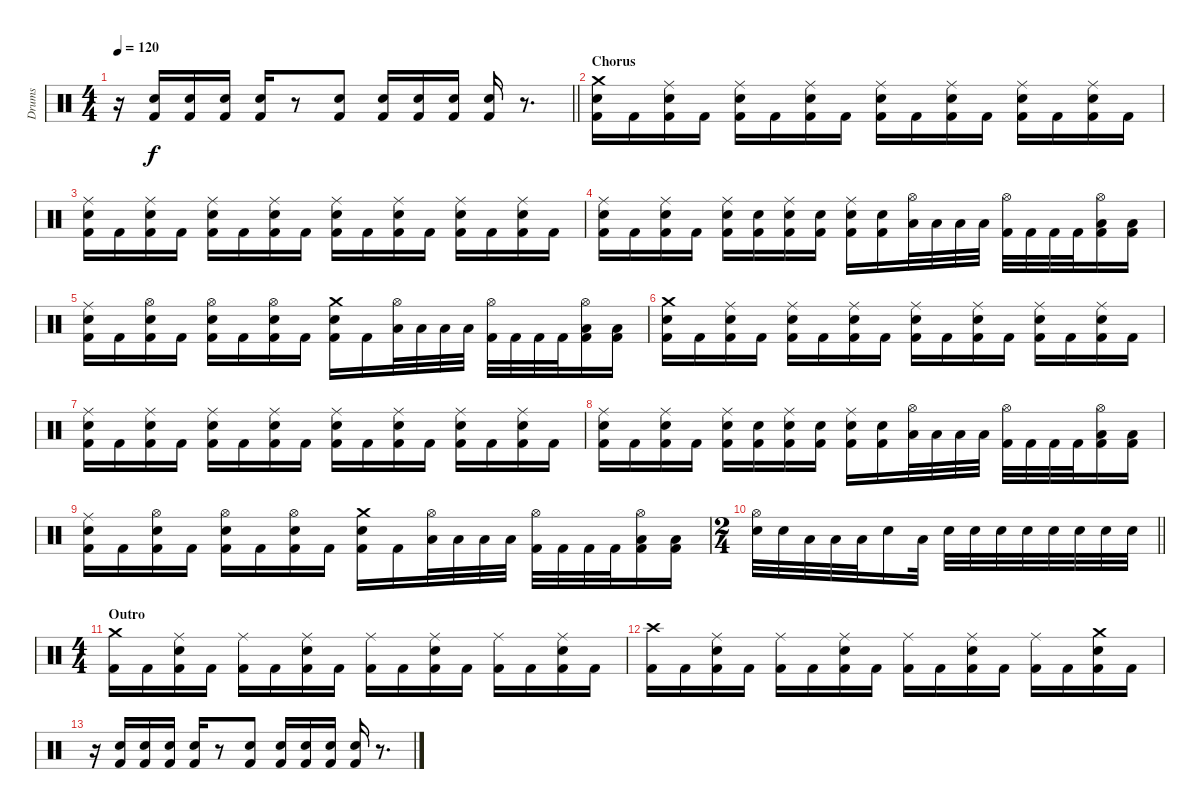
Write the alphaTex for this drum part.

\track ("Drums" "Drums") {instrument percussion}
\staff {score}
\articulation defaults
\ts (4 4)
\tempo 120
\clef neutral
\barLineRight lightlight
\ks c
r.16{dy f} ("Electric Snare (hit)" "Kick (hit) 2").16 ("Electric Snare (hit)" "Kick (hit) 2").16 ("Electric Snare (hit)" "Kick (hit) 2").16 ("Electric Snare (hit)" "Kick (hit) 2").16 r.8 ("Electric Snare (hit)" "Kick (hit) 2").8 ("Electric Snare (hit)" "Kick (hit) 2").16 ("Electric Snare (hit)" "Kick (hit) 2").16 ("Electric Snare (hit)" "Kick (hit) 2").16 ("Electric Snare (hit)" "Kick (hit) 2").16 r.8{d} |
\section ("" "Chorus")
("Crash medium (hit)" "Electric Snare (hit)" "Kick (hit) 2").16 "Kick (hit) 2".16 ("Ride (middle)" "Electric Snare (hit)" "Kick (hit) 2").16 "Kick (hit) 2".16 ("Ride (middle)" "Electric Snare (hit)" "Kick (hit) 2").16 "Kick (hit) 2".16 ("Ride (middle)" "Electric Snare (hit)" "Kick (hit) 2").16 "Kick (hit) 2".16 ("Ride (middle)" "Electric Snare (hit)" "Kick (hit) 2").16 "Kick (hit) 2".16 ("Ride (middle)" "Electric Snare (hit)" "Kick (hit) 2").16 "Kick (hit) 2".16 ("Ride (middle)" "Electric Snare (hit)" "Kick (hit) 2").16 "Kick (hit) 2".16 ("Ride (middle)" "Electric Snare (hit)" "Kick (hit) 2").16 "Kick (hit) 2".16 |
("Ride (middle)" "Electric Snare (hit)" "Kick (hit) 2").16 "Kick (hit) 2".16 ("Ride (middle)" "Electric Snare (hit)" "Kick (hit) 2").16 "Kick (hit) 2".16 ("Ride (middle)" "Electric Snare (hit)" "Kick (hit) 2").16 "Kick (hit) 2".16 ("Ride (middle)" "Electric Snare (hit)" "Kick (hit) 2").16 "Kick (hit) 2".16 ("Ride (middle)" "Electric Snare (hit)" "Kick (hit) 2").16 "Kick (hit) 2".16 ("Ride (middle)" "Electric Snare (hit)" "Kick (hit) 2").16 "Kick (hit) 2".16 ("Ride (middle)" "Electric Snare (hit)" "Kick (hit) 2").16 "Kick (hit) 2".16 ("Ride (middle)" "Electric Snare (hit)" "Kick (hit) 2").16 "Kick (hit) 2".16 |
("Ride (middle)" "Electric Snare (hit)" "Kick (hit) 2").16 "Kick (hit) 2".16 ("Ride (middle)" "Electric Snare (hit)" "Kick (hit) 2").16 "Kick (hit) 2".16 ("Ride (middle)" "Electric Snare (hit)" "Kick (hit) 2").16 ("Electric Snare (hit)" "Kick (hit) 2").16 ("Ride (middle)" "Electric Snare (hit)" "Kick (hit) 2").16 ("Electric Snare (hit)" "Kick (hit) 2").16 ("Ride (middle)" "Electric Snare (hit)" "Kick (hit) 2").16 ("Electric Snare (hit)" "Kick (hit) 2").16 ("Hi-Hat (open)" "Low Tom (hit)").32 "Low Tom (hit)".32 "Low Tom (hit)".32 "Low Tom (hit)".32 ("Hi-Hat (open)" "Kick (hit) 2").32 "Kick (hit) 2".32 "Kick (hit) 2".32 "Kick (hit) 2".32 ("Hi-Hat (open)" "Low Tom (hit)" "Kick (hit) 2").16 ("Low Tom (hit)" "Kick (hit) 2").16 |
("Ride (middle)" "Electric Snare (hit)" "Kick (hit) 2").16 "Kick (hit) 2".16 ("Hi-Hat (open)" "Electric Snare (hit)" "Kick (hit) 2").16 "Kick (hit) 2".16 ("Hi-Hat (open)" "Electric Snare (hit)" "Kick (hit) 2").16 "Kick (hit) 2".16 ("Hi-Hat (open)" "Electric Snare (hit)" "Kick (hit) 2").16 "Kick (hit) 2".16 ("Crash medium (hit)" "Electric Snare (hit)" "Kick (hit) 2").16 "Kick (hit) 2".16 ("Hi-Hat (open)" "Low Tom (hit)").32 "Low Tom (hit)".32 "Low Tom (hit)".32 "Low Tom (hit)".32 ("Hi-Hat (open)" "Kick (hit) 2").32 "Kick (hit) 2".32 "Kick (hit) 2".32 "Kick (hit) 2".32 ("Hi-Hat (open)" "Low Tom (hit)" "Kick (hit) 2").16 ("Low Tom (hit)" "Kick (hit) 2").16 |
("Crash medium (hit)" "Electric Snare (hit)" "Kick (hit) 2").16 "Kick (hit) 2".16 ("Ride (middle)" "Electric Snare (hit)" "Kick (hit) 2").16 "Kick (hit) 2".16 ("Ride (middle)" "Electric Snare (hit)" "Kick (hit) 2").16 "Kick (hit) 2".16 ("Ride (middle)" "Electric Snare (hit)" "Kick (hit) 2").16 "Kick (hit) 2".16 ("Ride (middle)" "Electric Snare (hit)" "Kick (hit) 2").16 "Kick (hit) 2".16 ("Ride (middle)" "Electric Snare (hit)" "Kick (hit) 2").16 "Kick (hit) 2".16 ("Ride (middle)" "Electric Snare (hit)" "Kick (hit) 2").16 "Kick (hit) 2".16 ("Ride (middle)" "Electric Snare (hit)" "Kick (hit) 2").16 "Kick (hit) 2".16 |
("Ride (middle)" "Electric Snare (hit)" "Kick (hit) 2").16 "Kick (hit) 2".16 ("Ride (middle)" "Electric Snare (hit)" "Kick (hit) 2").16 "Kick (hit) 2".16 ("Ride (middle)" "Electric Snare (hit)" "Kick (hit) 2").16 "Kick (hit) 2".16 ("Ride (middle)" "Electric Snare (hit)" "Kick (hit) 2").16 "Kick (hit) 2".16 ("Ride (middle)" "Electric Snare (hit)" "Kick (hit) 2").16 "Kick (hit) 2".16 ("Ride (middle)" "Electric Snare (hit)" "Kick (hit) 2").16 "Kick (hit) 2".16 ("Ride (middle)" "Electric Snare (hit)" "Kick (hit) 2").16 "Kick (hit) 2".16 ("Ride (middle)" "Electric Snare (hit)" "Kick (hit) 2").16 "Kick (hit) 2".16 |
("Ride (middle)" "Electric Snare (hit)" "Kick (hit) 2").16 "Kick (hit) 2".16 ("Ride (middle)" "Electric Snare (hit)" "Kick (hit) 2").16 "Kick (hit) 2".16 ("Ride (middle)" "Electric Snare (hit)" "Kick (hit) 2").16 ("Electric Snare (hit)" "Kick (hit) 2").16 ("Ride (middle)" "Electric Snare (hit)" "Kick (hit) 2").16 ("Electric Snare (hit)" "Kick (hit) 2").16 ("Ride (middle)" "Electric Snare (hit)" "Kick (hit) 2").16 ("Electric Snare (hit)" "Kick (hit) 2").16 ("Hi-Hat (open)" "Low Tom (hit)").32 "Low Tom (hit)".32 "Low Tom (hit)".32 "Low Tom (hit)".32 ("Hi-Hat (open)" "Kick (hit) 2").32 "Kick (hit) 2".32 "Kick (hit) 2".32 "Kick (hit) 2".32 ("Hi-Hat (open)" "Low Tom (hit)" "Kick (hit) 2").16 ("Low Tom (hit)" "Kick (hit) 2").16 |
("Ride (middle)" "Electric Snare (hit)" "Kick (hit) 2").16 "Kick (hit) 2".16 ("Hi-Hat (open)" "Electric Snare (hit)" "Kick (hit) 2").16 "Kick (hit) 2".16 ("Hi-Hat (open)" "Electric Snare (hit)" "Kick (hit) 2").16 "Kick (hit) 2".16 ("Hi-Hat (open)" "Electric Snare (hit)" "Kick (hit) 2").16 "Kick (hit) 2".16 ("Crash medium (hit)" "Electric Snare (hit)" "Kick (hit) 2").16 "Kick (hit) 2".16 ("Hi-Hat (open)" "Low Tom (hit)").32 "Low Tom (hit)".32 "Low Tom (hit)".32 "Low Tom (hit)".32 ("Hi-Hat (open)" "Kick (hit) 2").32 "Kick (hit) 2".32 "Kick (hit) 2".32 "Kick (hit) 2".32 ("Hi-Hat (open)" "Low Tom (hit)" "Kick (hit) 2").16 ("Low Tom (hit)" "Kick (hit) 2").16 |
\ts (2 4)
\barLineRight lightlight
("Hi-Hat (open)" "Electric Snare (hit)").32 "Electric Snare (hit)".32 "Low Tom (hit)".32 "Low Tom (hit)".32 "Low Tom (hit)".32 "Electric Snare (hit)".16 "Low Tom (hit)".32 "Electric Snare (hit)".32 "Electric Snare (hit)".32 "Electric Snare (hit)".32 "Electric Snare (hit)".32 "Electric Snare (hit)".32 "Electric Snare (hit)".32 "Electric Snare (hit)".32 "Electric Snare (hit)".32 |
\ts (4 4)
\section ("" "Outro")
("Crash medium (hit)" "Kick (hit) 2").16 "Kick (hit) 2".16 ("Ride (middle)" "Electric Snare (hit)" "Kick (hit) 2").16 "Kick (hit) 2".16 ("Ride (middle)" "Kick (hit) 2").16 "Kick (hit) 2".16 ("Ride (middle)" "Electric Snare (hit)" "Kick (hit) 2").16 "Kick (hit) 2".16 ("Ride (middle)" "Kick (hit) 2").16 "Kick (hit) 2".16 ("Ride (middle)" "Electric Snare (hit)" "Kick (hit) 2").16 "Kick (hit) 2".16 ("Ride (middle)" "Kick (hit) 2").16 "Kick (hit) 2".16 ("Ride (middle)" "Electric Snare (hit)" "Kick (hit) 2").16 "Kick (hit) 2".16 |
("Crash high (hit)" "Kick (hit) 2").16 "Kick (hit) 2".16 ("Ride (middle)" "Electric Snare (hit)" "Kick (hit) 2").16 "Kick (hit) 2".16 ("Ride (middle)" "Kick (hit) 2").16 "Kick (hit) 2".16 ("Ride (middle)" "Electric Snare (hit)" "Kick (hit) 2").16 "Kick (hit) 2".16 ("Ride (middle)" "Kick (hit) 2").16 "Kick (hit) 2".16 ("Ride (middle)" "Electric Snare (hit)" "Kick (hit) 2").16 "Kick (hit) 2".16 ("Ride (middle)" "Kick (hit) 2").16 "Kick (hit) 2".16 ("Crash medium (hit)" "Electric Snare (hit)" "Kick (hit) 2").16 "Kick (hit) 2".16 |
r.16 ("Electric Snare (hit)" "Kick (hit) 2").16 ("Electric Snare (hit)" "Kick (hit) 2").16 ("Electric Snare (hit)" "Kick (hit) 2").16 ("Electric Snare (hit)" "Kick (hit) 2").16 r.8 ("Electric Snare (hit)" "Kick (hit) 2").8 ("Electric Snare (hit)" "Kick (hit) 2").16 ("Electric Snare (hit)" "Kick (hit) 2").16 ("Electric Snare (hit)" "Kick (hit) 2").16 ("Electric Snare (hit)" "Kick (hit) 2").16 r.8{d}
